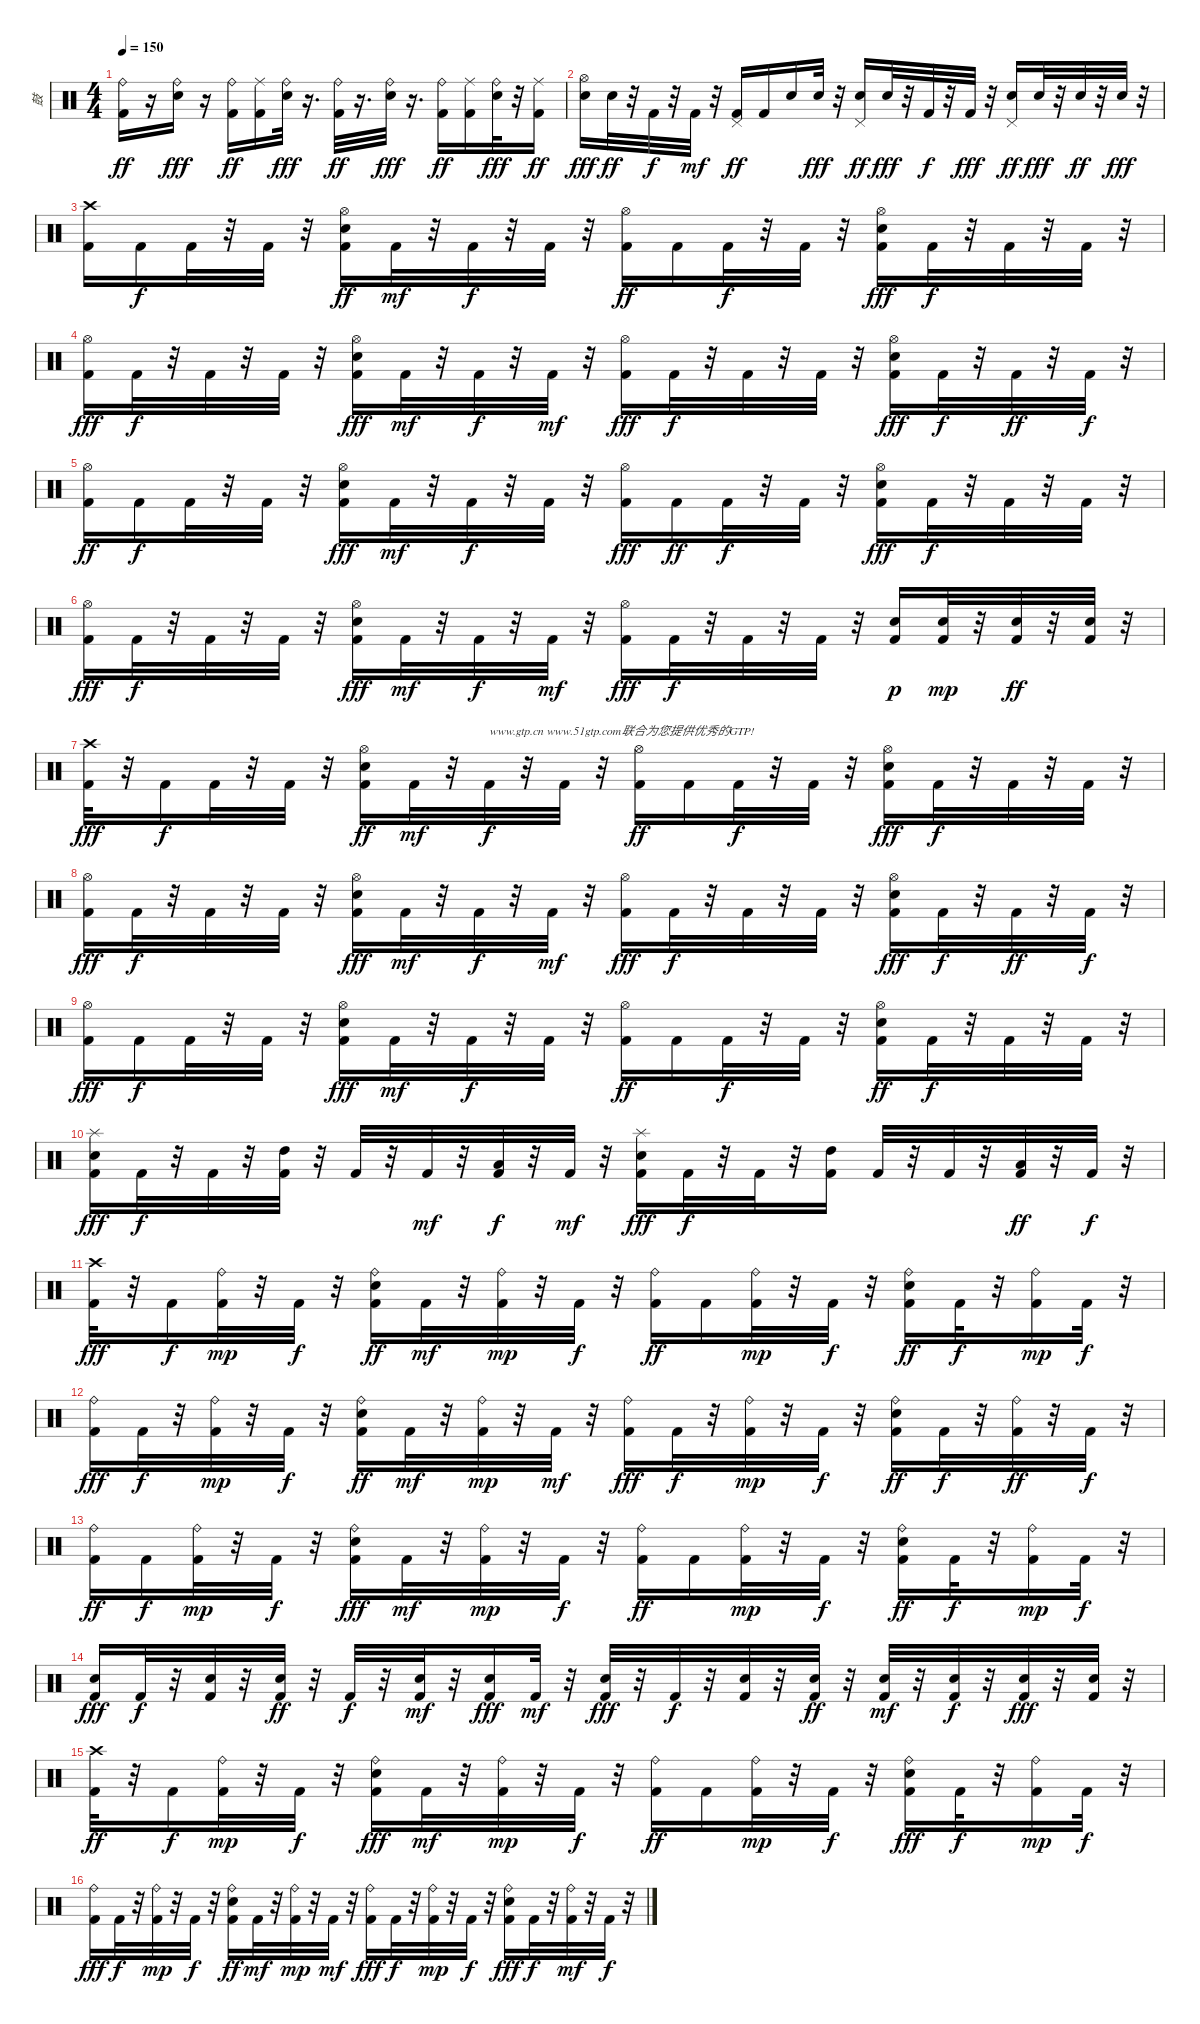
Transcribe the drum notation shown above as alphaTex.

\track ("鼓" "鼓") {instrument percussion}
\staff {score}
\articulation defaults
\ts (4 4)
\tempo 150
\clef neutral
\ks c
("Ride (bell)" "Kick (hit) 2").16{dy ff} r.16 ("Electric Snare (hit)" "Ride (bell)").16{dy fff} r.16 ("Ride (bell)" "Kick (hit) 2").16{dy ff} ("Ride (middle)" "Kick (hit) 2").16 ("Electric Snare (hit)" "Ride (bell)").32{dy fff} r.16{d} ("Ride (bell)" "Kick (hit) 2").32{dy ff} r.16{d} ("Electric Snare (hit)" "Ride (bell)").32{dy fff} r.16{d} ("Ride (bell)" "Kick (hit) 2").16{dy ff} ("Kick (hit) 2" "Ride (middle)").16 ("Ride (bell)" "Electric Snare (hit)").32{dy fff} r.32 ("Kick (hit) 2" "Ride (middle)").16{dy ff} |
("Electric Snare (hit)" "Hi-Hat (open)").16{dy fff} "Electric Snare (hit)".32{dy ff} r.32 "Kick (hit) 2".32{dy f} r.32 "Kick (hit) 2".32{dy mf} r.32 ("Kick (hit) 2" "Pedal Hi-Hat (hit)").16{dy ff} "Kick (hit) 2".16 "Electric Snare (hit)".16 "Electric Snare (hit)".32{dy fff} r.32 ("Electric Snare (hit)" "Pedal Hi-Hat (hit)").16{dy ff} "Electric Snare (hit)".32{dy fff} r.32 "Kick (hit) 2".32{dy f} r.32 "Kick (hit) 2".32{dy fff} r.32 ("Electric Snare (hit)" "Pedal Hi-Hat (hit)").16{dy ff} "Electric Snare (hit)".32{dy fff} r.32 "Electric Snare (hit)".32{dy ff} r.32 "Electric Snare (hit)".32{dy fff} r.32 |
("Kick (hit) 2" "Crash high (hit)").16 "Kick (hit) 2".16{dy f} "Kick (hit) 2".32 r.32 "Kick (hit) 2".32 r.32 ("Electric Snare (hit)" "Hi-Hat (open)" "Kick (hit) 2").16{dy ff} "Kick (hit) 2".32{dy mf} r.32 "Kick (hit) 2".32{dy f} r.32 "Kick (hit) 2".32 r.32 ("Hi-Hat (open)" "Kick (hit) 2").16{dy ff} "Kick (hit) 2".16 "Kick (hit) 2".32{dy f} r.32 "Kick (hit) 2".32 r.32 ("Kick (hit) 2" "Electric Snare (hit)" "Hi-Hat (open)").16{dy fff} "Kick (hit) 2".32{dy f} r.32 "Kick (hit) 2".32 r.32 "Kick (hit) 2".32 r.32 |
("Hi-Hat (open)" "Kick (hit) 2").16{dy fff} "Kick (hit) 2".32{dy f} r.32 "Kick (hit) 2".32 r.32 "Kick (hit) 2".32 r.32 ("Kick (hit) 2" "Hi-Hat (open)" "Electric Snare (hit)").16{dy fff} "Kick (hit) 2".32{dy mf} r.32 "Kick (hit) 2".32{dy f} r.32 "Kick (hit) 2".32{dy mf} r.32 ("Hi-Hat (open)" "Kick (hit) 2").16{dy fff} "Kick (hit) 2".32{dy f} r.32 "Kick (hit) 2".32 r.32 "Kick (hit) 2".32 r.32 ("Electric Snare (hit)" "Hi-Hat (open)" "Kick (hit) 2").16{dy fff} "Kick (hit) 2".32{dy f} r.32 "Kick (hit) 2".32{dy ff} r.32 "Kick (hit) 2".32{dy f} r.32 |
("Hi-Hat (open)" "Kick (hit) 2").16{dy ff} "Kick (hit) 2".16{dy f} "Kick (hit) 2".32 r.32 "Kick (hit) 2".32 r.32 ("Kick (hit) 2" "Hi-Hat (open)" "Electric Snare (hit)").16{dy fff} "Kick (hit) 2".32{dy mf} r.32 "Kick (hit) 2".32{dy f} r.32 "Kick (hit) 2".32 r.32 ("Kick (hit) 2" "Hi-Hat (open)").16{dy fff} "Kick (hit) 2".16{dy ff} "Kick (hit) 2".32{dy f} r.32 "Kick (hit) 2".32 r.32 ("Kick (hit) 2" "Hi-Hat (open)" "Electric Snare (hit)").16{dy fff} "Kick (hit) 2".32{dy f} r.32 "Kick (hit) 2".32 r.32 "Kick (hit) 2".32 r.32 |
("Kick (hit) 2" "Hi-Hat (open)").16{dy fff} "Kick (hit) 2".32{dy f} r.32 "Kick (hit) 2".32 r.32 "Kick (hit) 2".32 r.32 ("Electric Snare (hit)" "Kick (hit) 2" "Hi-Hat (open)").16{dy fff} "Kick (hit) 2".32{dy mf} r.32 "Kick (hit) 2".32{dy f} r.32 "Kick (hit) 2".32{dy mf} r.32 ("Hi-Hat (open)" "Kick (hit) 2").16{dy fff} "Kick (hit) 2".32{dy f} r.32 "Kick (hit) 2".32 r.32 "Kick (hit) 2".32 r.32 ("Electric Snare (hit)" "Kick (hit) 2").16{dy p} ("Electric Snare (hit)" "Kick (hit) 2").32{dy mp} r.32 ("Kick (hit) 2" "Electric Snare (hit)").32{dy ff} r.32 ("Electric Snare (hit)" "Kick (hit) 2").32 r.32 |
("Kick (hit) 2" "Crash high (hit)").32{dy fff} r.32 "Kick (hit) 2".16{dy f} "Kick (hit) 2".32 r.32 "Kick (hit) 2".32 r.32 ("Electric Snare (hit)" "Hi-Hat (open)" "Kick (hit) 2").16{dy ff} "Kick (hit) 2".32{dy mf} r.32 "Kick (hit) 2".32{txt "www.gtp.cn www.51gtp.com联合为您提供优秀的GTP!" dy f} r.32 "Kick (hit) 2".32 r.32 ("Hi-Hat (open)" "Kick (hit) 2").16{dy ff} "Kick (hit) 2".16 "Kick (hit) 2".32{dy f} r.32 "Kick (hit) 2".32 r.32 ("Hi-Hat (open)" "Kick (hit) 2" "Electric Snare (hit)").16{dy fff} "Kick (hit) 2".32{dy f} r.32 "Kick (hit) 2".32 r.32 "Kick (hit) 2".32 r.32 |
("Hi-Hat (open)" "Kick (hit) 2").16{dy fff} "Kick (hit) 2".32{dy f} r.32 "Kick (hit) 2".32 r.32 "Kick (hit) 2".32 r.32 ("Kick (hit) 2" "Hi-Hat (open)" "Electric Snare (hit)").16{dy fff} "Kick (hit) 2".32{dy mf} r.32 "Kick (hit) 2".32{dy f} r.32 "Kick (hit) 2".32{dy mf} r.32 ("Kick (hit) 2" "Hi-Hat (open)").16{dy fff} "Kick (hit) 2".32{dy f} r.32 "Kick (hit) 2".32 r.32 "Kick (hit) 2".32 r.32 ("Hi-Hat (open)" "Kick (hit) 2" "Electric Snare (hit)").16{dy fff} "Kick (hit) 2".32{dy f} r.32 "Kick (hit) 2".32{dy ff} r.32 "Kick (hit) 2".32{dy f} r.32 |
("Kick (hit) 2" "Hi-Hat (open)").16{dy fff} "Kick (hit) 2".16{dy f} "Kick (hit) 2".32 r.32 "Kick (hit) 2".32 r.32 ("Hi-Hat (open)" "Kick (hit) 2" "Electric Snare (hit)").16{dy fff} "Kick (hit) 2".32{dy mf} r.32 "Kick (hit) 2".32{dy f} r.32 "Kick (hit) 2".32 r.32 ("Hi-Hat (open)" "Kick (hit) 2").16{dy ff} "Kick (hit) 2".16 "Kick (hit) 2".32{dy f} r.32 "Kick (hit) 2".32 r.32 ("Hi-Hat (open)" "Electric Snare (hit)" "Kick (hit) 2").16{dy ff} "Kick (hit) 2".32{dy f} r.32 "Kick (hit) 2".32 r.32 "Kick (hit) 2".32 r.32 |
("Splash (hit)" "Electric Snare (hit)" "Kick (hit) 2").16{dy fff} "Kick (hit) 2".32{dy f} r.32 "Kick (hit) 2".32 r.32 ("High Tom (hit)" "Kick (hit) 2").32 r.32 "Kick (hit) 2".32 r.32 "Kick (hit) 2".32{dy mf} r.32 ("Kick (hit) 2" "Low Tom (hit)").32{dy f} r.32 "Kick (hit) 2".32{dy mf} r.32 ("Electric Snare (hit)" "Splash (hit)" "Kick (hit) 2").16{dy fff} "Kick (hit) 2".32{dy f} r.32 "Kick (hit) 2".32 r.32 ("Kick (hit) 2" "High Tom (hit)").16 "Kick (hit) 2".32 r.32 "Kick (hit) 2".32 r.32 ("Low Tom (hit)" "Kick (hit) 2").32{dy ff} r.32 "Kick (hit) 2".32{dy f} r.32 |
("Kick (hit) 2" "Crash high (hit)").32{dy fff} r.32 "Kick (hit) 2".16{dy f} ("Ride (bell)" "Kick (hit) 2").32{dy mp} r.32 "Kick (hit) 2".32{dy f} r.32 ("Ride (bell)" "Electric Snare (hit)" "Kick (hit) 2").16{dy ff} "Kick (hit) 2".32{dy mf} r.32 ("Ride (bell)" "Kick (hit) 2").32{dy mp} r.32 "Kick (hit) 2".32{dy f} r.32 ("Kick (hit) 2" "Ride (bell)").16{dy ff} "Kick (hit) 2".16 ("Kick (hit) 2" "Ride (bell)").32{dy mp} r.32 "Kick (hit) 2".32{dy f} r.32 ("Electric Snare (hit)" "Ride (bell)" "Kick (hit) 2").16{dy ff} "Kick (hit) 2".32{dy f} r.32 ("Ride (bell)" "Kick (hit) 2").16{dy mp} "Kick (hit) 2".32{dy f} r.32 |
("Ride (bell)" "Kick (hit) 2").16{dy fff} "Kick (hit) 2".32{dy f} r.32 ("Kick (hit) 2" "Ride (bell)").32{dy mp} r.32 "Kick (hit) 2".32{dy f} r.32 ("Electric Snare (hit)" "Kick (hit) 2" "Ride (bell)").16{dy ff} "Kick (hit) 2".32{dy mf} r.32 ("Ride (bell)" "Kick (hit) 2").32{dy mp} r.32 "Kick (hit) 2".32{dy mf} r.32 ("Ride (bell)" "Kick (hit) 2").16{dy fff} "Kick (hit) 2".32{dy f} r.32 ("Ride (bell)" "Kick (hit) 2").32{dy mp} r.32 "Kick (hit) 2".32{dy f} r.32 ("Electric Snare (hit)" "Kick (hit) 2" "Ride (bell)").16{dy ff} "Kick (hit) 2".32{dy f} r.32 ("Ride (bell)" "Kick (hit) 2").32{dy ff} r.32 "Kick (hit) 2".32{dy f} r.32 |
("Ride (bell)" "Kick (hit) 2").16{dy ff} "Kick (hit) 2".16{dy f} ("Ride (bell)" "Kick (hit) 2").32{dy mp} r.32 "Kick (hit) 2".32{dy f} r.32 ("Electric Snare (hit)" "Kick (hit) 2" "Ride (bell)").16{dy fff} "Kick (hit) 2".32{dy mf} r.32 ("Ride (bell)" "Kick (hit) 2").32{dy mp} r.32 "Kick (hit) 2".32{dy f} r.32 ("Ride (bell)" "Kick (hit) 2").16{dy ff} "Kick (hit) 2".16 ("Ride (bell)" "Kick (hit) 2").32{dy mp} r.32 "Kick (hit) 2".32{dy f} r.32 ("Electric Snare (hit)" "Ride (bell)" "Kick (hit) 2").16{dy ff} "Kick (hit) 2".32{dy f} r.32 ("Ride (bell)" "Kick (hit) 2").16{dy mp} "Kick (hit) 2".32{dy f} r.32 |
("Kick (hit) 2" "Electric Snare (hit)").16{dy fff} "Kick (hit) 2".32{dy f} r.32 ("Kick (hit) 2" "Electric Snare (hit)").32 r.32 ("Electric Snare (hit)" "Kick (hit) 2").32{dy ff} r.32 "Kick (hit) 2".32{dy f} r.32 ("Kick (hit) 2" "Electric Snare (hit)").32{dy mf} r.32 ("Electric Snare (hit)" "Kick (hit) 2").16{dy fff} "Kick (hit) 2".32{dy mf} r.32 ("Electric Snare (hit)" "Kick (hit) 2").32{dy fff} r.32 "Kick (hit) 2".32{dy f} r.32 ("Kick (hit) 2" "Electric Snare (hit)").32 r.32 ("Kick (hit) 2" "Electric Snare (hit)").32{dy ff} r.32 ("Electric Snare (hit)" "Kick (hit) 2").32{dy mf} r.32 ("Electric Snare (hit)" "Kick (hit) 2").32{dy f} r.32 ("Kick (hit) 2" "Electric Snare (hit)").32{dy fff} r.32 ("Kick (hit) 2" "Electric Snare (hit)").32 r.32 |
("Crash high (hit)" "Kick (hit) 2").32{dy ff} r.32 "Kick (hit) 2".16{dy f} ("Kick (hit) 2" "Ride (bell)").32{dy mp} r.32 "Kick (hit) 2".32{dy f} r.32 ("Kick (hit) 2" "Ride (bell)" "Electric Snare (hit)").16{dy fff} "Kick (hit) 2".32{dy mf} r.32 ("Ride (bell)" "Kick (hit) 2").32{dy mp} r.32 "Kick (hit) 2".32{dy f} r.32 ("Ride (bell)" "Kick (hit) 2").16{dy ff} "Kick (hit) 2".16 ("Kick (hit) 2" "Ride (bell)").32{dy mp} r.32 "Kick (hit) 2".32{dy f} r.32 ("Ride (bell)" "Kick (hit) 2" "Electric Snare (hit)").16{dy fff} "Kick (hit) 2".32{dy f} r.32 ("Kick (hit) 2" "Ride (bell)").16{dy mp} "Kick (hit) 2".32{dy f} r.32 |
("Ride (bell)" "Kick (hit) 2").16{dy fff} "Kick (hit) 2".32{dy f} r.32 ("Ride (bell)" "Kick (hit) 2").32{dy mp} r.32 "Kick (hit) 2".32{dy f} r.32 ("Kick (hit) 2" "Electric Snare (hit)" "Ride (bell)").16{dy ff} "Kick (hit) 2".32{dy mf} r.32 ("Kick (hit) 2" "Ride (bell)").32{dy mp} r.32 "Kick (hit) 2".32{dy mf} r.32 ("Kick (hit) 2" "Ride (bell)").16{dy fff} "Kick (hit) 2".32{dy f} r.32 ("Kick (hit) 2" "Ride (bell)").32{dy mp} r.32 "Kick (hit) 2".32{dy f} r.32 ("Kick (hit) 2" "Ride (bell)" "Electric Snare (hit)").16{dy fff} "Kick (hit) 2".32{dy f} r.32 ("Kick (hit) 2" "Ride (bell)").32{dy mf} r.32 "Kick (hit) 2".32{dy f} r.32
